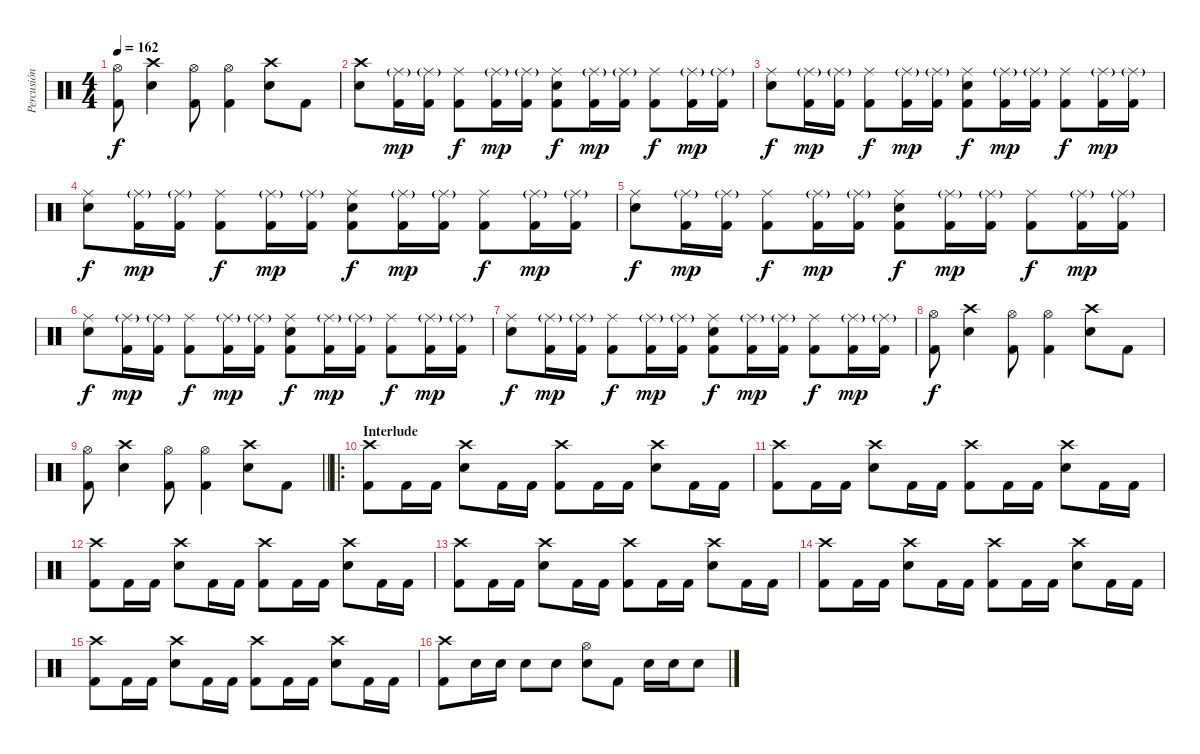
\track ("Percusión" "Percusión") {instrument percussion}
\staff {score}
\articulation defaults
\ts (4 4)
\tempo 162
\clef neutral
\ks c
("Hi-Hat (open)" "Kick (hit) 2").8{dy f} ("Crash high (hit)" "Electric Snare (hit)").4 ("Hi-Hat (open)" "Kick (hit) 2").8 ("Hi-Hat (open)" "Kick (hit) 2").4 ("Crash high (hit)" "Electric Snare (hit)").8 "Kick (hit) 2".8 |
("Crash high (hit)" "Electric Snare (hit)").8 ("Ride (middle)"{g} "Kick (hit) 2").16{dy mp} ("Ride (middle)"{g} "Kick (hit) 2").16 ("Ride (middle)" "Kick (hit) 2").8{dy f} ("Ride (middle)"{g} "Kick (hit) 2").16{dy mp} ("Ride (middle)"{g} "Kick (hit) 2").16 ("Ride (middle)" "Electric Snare (hit)" "Kick (hit) 2").8{dy f} ("Ride (middle)"{g} "Kick (hit) 2").16{dy mp} ("Ride (middle)"{g} "Kick (hit) 2").16 ("Ride (middle)" "Kick (hit) 2").8{dy f} ("Ride (middle)"{g} "Kick (hit) 2").16{dy mp} ("Ride (middle)"{g} "Kick (hit) 2").16 |
("Ride (middle)" "Electric Snare (hit)").8{dy f} ("Ride (middle)"{g} "Kick (hit) 2").16{dy mp} ("Ride (middle)"{g} "Kick (hit) 2").16 ("Ride (middle)" "Kick (hit) 2").8{dy f} ("Ride (middle)"{g} "Kick (hit) 2").16{dy mp} ("Ride (middle)"{g} "Kick (hit) 2").16 ("Ride (middle)" "Electric Snare (hit)" "Kick (hit) 2").8{dy f} ("Ride (middle)"{g} "Kick (hit) 2").16{dy mp} ("Ride (middle)"{g} "Kick (hit) 2").16 ("Ride (middle)" "Kick (hit) 2").8{dy f} ("Ride (middle)"{g} "Kick (hit) 2").16{dy mp} ("Ride (middle)"{g} "Kick (hit) 2").16 |
("Ride (middle)" "Electric Snare (hit)").8{dy f} ("Ride (middle)"{g} "Kick (hit) 2").16{dy mp} ("Ride (middle)"{g} "Kick (hit) 2").16 ("Ride (middle)" "Kick (hit) 2").8{dy f} ("Ride (middle)"{g} "Kick (hit) 2").16{dy mp} ("Ride (middle)"{g} "Kick (hit) 2").16 ("Ride (middle)" "Electric Snare (hit)" "Kick (hit) 2").8{dy f} ("Ride (middle)"{g} "Kick (hit) 2").16{dy mp} ("Ride (middle)"{g} "Kick (hit) 2").16 ("Ride (middle)" "Kick (hit) 2").8{dy f} ("Ride (middle)"{g} "Kick (hit) 2").16{dy mp} ("Ride (middle)"{g} "Kick (hit) 2").16 |
("Ride (middle)" "Electric Snare (hit)").8{dy f} ("Ride (middle)"{g} "Kick (hit) 2").16{dy mp} ("Ride (middle)"{g} "Kick (hit) 2").16 ("Ride (middle)" "Kick (hit) 2").8{dy f} ("Ride (middle)"{g} "Kick (hit) 2").16{dy mp} ("Ride (middle)"{g} "Kick (hit) 2").16 ("Ride (middle)" "Electric Snare (hit)" "Kick (hit) 2").8{dy f} ("Ride (middle)"{g} "Kick (hit) 2").16{dy mp} ("Ride (middle)"{g} "Kick (hit) 2").16 ("Ride (middle)" "Kick (hit) 2").8{dy f} ("Ride (middle)"{g} "Kick (hit) 2").16{dy mp} ("Ride (middle)"{g} "Kick (hit) 2").16 |
("Ride (middle)" "Electric Snare (hit)").8{dy f} ("Ride (middle)"{g} "Kick (hit) 2").16{dy mp} ("Ride (middle)"{g} "Kick (hit) 2").16 ("Ride (middle)" "Kick (hit) 2").8{dy f} ("Ride (middle)"{g} "Kick (hit) 2").16{dy mp} ("Ride (middle)"{g} "Kick (hit) 2").16 ("Ride (middle)" "Electric Snare (hit)" "Kick (hit) 2").8{dy f} ("Ride (middle)"{g} "Kick (hit) 2").16{dy mp} ("Ride (middle)"{g} "Kick (hit) 2").16 ("Ride (middle)" "Kick (hit) 2").8{dy f} ("Ride (middle)"{g} "Kick (hit) 2").16{dy mp} ("Ride (middle)"{g} "Kick (hit) 2").16 |
("Ride (middle)" "Electric Snare (hit)").8{dy f} ("Ride (middle)"{g} "Kick (hit) 2").16{dy mp} ("Ride (middle)"{g} "Kick (hit) 2").16 ("Ride (middle)" "Kick (hit) 2").8{dy f} ("Ride (middle)"{g} "Kick (hit) 2").16{dy mp} ("Ride (middle)"{g} "Kick (hit) 2").16 ("Ride (middle)" "Electric Snare (hit)" "Kick (hit) 2").8{dy f} ("Ride (middle)"{g} "Kick (hit) 2").16{dy mp} ("Ride (middle)"{g} "Kick (hit) 2").16 ("Ride (middle)" "Kick (hit) 2").8{dy f} ("Ride (middle)"{g} "Kick (hit) 2").16{dy mp} ("Ride (middle)"{g} "Kick (hit) 2").16 |
("Hi-Hat (open)" "Kick (hit) 2").8{dy f} ("Crash high (hit)" "Electric Snare (hit)").4 ("Hi-Hat (open)" "Kick (hit) 2").8 ("Hi-Hat (open)" "Kick (hit) 2").4 ("Crash high (hit)" "Electric Snare (hit)").8 "Kick (hit) 2".8 |
\barLineRight lightlight
("Hi-Hat (open)" "Kick (hit) 2").8 ("Crash high (hit)" "Electric Snare (hit)").4 ("Hi-Hat (open)" "Kick (hit) 2").8 ("Hi-Hat (open)" "Kick (hit) 2").4 ("Crash high (hit)" "Electric Snare (hit)").8 "Kick (hit) 2".8 |
\ro
\section ("" "Interlude")
("Crash high (hit)" "Kick (hit) 2").8 "Kick (hit) 2".16 "Kick (hit) 2".16 ("Crash high (hit)" "Electric Snare (hit)").8 "Kick (hit) 2".16 "Kick (hit) 2".16 ("Crash high (hit)" "Kick (hit) 2").8 "Kick (hit) 2".16 "Kick (hit) 2".16 ("Crash high (hit)" "Electric Snare (hit)").8 "Kick (hit) 2".16 "Kick (hit) 2".16 |
("Crash high (hit)" "Kick (hit) 2").8 "Kick (hit) 2".16 "Kick (hit) 2".16 ("Crash high (hit)" "Electric Snare (hit)").8 "Kick (hit) 2".16 "Kick (hit) 2".16 ("Crash high (hit)" "Kick (hit) 2").8 "Kick (hit) 2".16 "Kick (hit) 2".16 ("Crash high (hit)" "Electric Snare (hit)").8 "Kick (hit) 2".16 "Kick (hit) 2".16 |
("Crash high (hit)" "Kick (hit) 2").8 "Kick (hit) 2".16 "Kick (hit) 2".16 ("Crash high (hit)" "Electric Snare (hit)").8 "Kick (hit) 2".16 "Kick (hit) 2".16 ("Crash high (hit)" "Kick (hit) 2").8 "Kick (hit) 2".16 "Kick (hit) 2".16 ("Crash high (hit)" "Electric Snare (hit)").8 "Kick (hit) 2".16 "Kick (hit) 2".16 |
("Crash high (hit)" "Kick (hit) 2").8 "Kick (hit) 2".16 "Kick (hit) 2".16 ("Crash high (hit)" "Electric Snare (hit)").8 "Kick (hit) 2".16 "Kick (hit) 2".16 ("Crash high (hit)" "Kick (hit) 2").8 "Kick (hit) 2".16 "Kick (hit) 2".16 ("Crash high (hit)" "Electric Snare (hit)").8 "Kick (hit) 2".16 "Kick (hit) 2".16 |
("Crash high (hit)" "Kick (hit) 2").8 "Kick (hit) 2".16 "Kick (hit) 2".16 ("Crash high (hit)" "Electric Snare (hit)").8 "Kick (hit) 2".16 "Kick (hit) 2".16 ("Crash high (hit)" "Kick (hit) 2").8 "Kick (hit) 2".16 "Kick (hit) 2".16 ("Crash high (hit)" "Electric Snare (hit)").8 "Kick (hit) 2".16 "Kick (hit) 2".16 |
("Crash high (hit)" "Kick (hit) 2").8 "Kick (hit) 2".16 "Kick (hit) 2".16 ("Crash high (hit)" "Electric Snare (hit)").8 "Kick (hit) 2".16 "Kick (hit) 2".16 ("Crash high (hit)" "Kick (hit) 2").8 "Kick (hit) 2".16 "Kick (hit) 2".16 ("Crash high (hit)" "Electric Snare (hit)").8 "Kick (hit) 2".16 "Kick (hit) 2".16 |
("Crash high (hit)" "Kick (hit) 2").8 "Electric Snare (hit)".16 "Electric Snare (hit)".16 "Electric Snare (hit)".8 "Electric Snare (hit)".8 ("Hi-Hat (open)" "Electric Snare (hit)").8 "Kick (hit) 2".8 "Electric Snare (hit)".16 "Electric Snare (hit)".16 "Electric Snare (hit)".8
